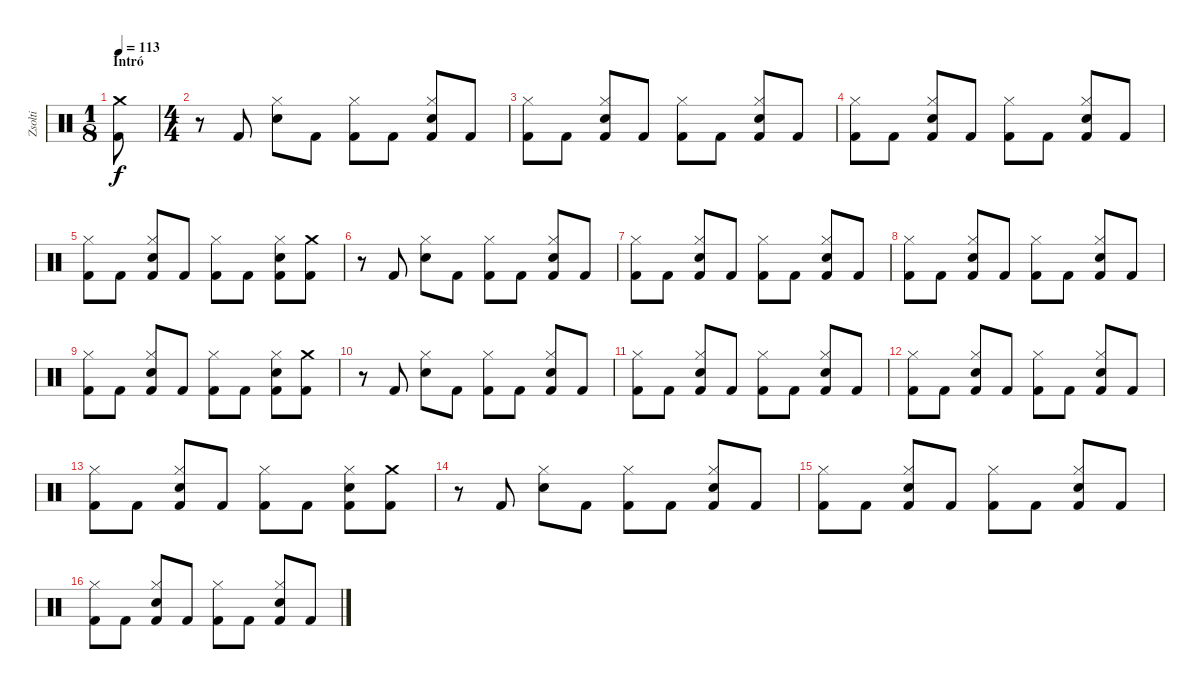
\track ("Zsolti" "Zsolti") {instrument percussion}
\staff {score}
\articulation defaults
\ts (1 8)
\section ("" "Intró")
\tempo 113
\clef neutral
\ks c
("Crash medium (hit)" "Kick (hit) 2").8{dy f} |
\ts (4 4)
r.8 "Kick (hit) 2".8 ("Hi-Hat (closed)" "Snare (hit) 2").8 "Kick (hit) 2".8 ("Hi-Hat (closed)" "Kick (hit) 2").8 "Kick (hit) 2".8 ("Hi-Hat (closed)" "Snare (hit) 2" "Kick (hit) 2").8 "Kick (hit) 2".8 |
("Hi-Hat (closed)" "Kick (hit) 2").8 "Kick (hit) 2".8 ("Hi-Hat (closed)" "Snare (hit) 2" "Kick (hit) 2").8 "Kick (hit) 2".8 ("Hi-Hat (closed)" "Kick (hit) 2").8 "Kick (hit) 2".8 ("Hi-Hat (closed)" "Snare (hit) 2" "Kick (hit) 2").8 "Kick (hit) 2".8 |
("Hi-Hat (closed)" "Kick (hit) 2").8 "Kick (hit) 2".8 ("Hi-Hat (closed)" "Snare (hit) 2" "Kick (hit) 2").8 "Kick (hit) 2".8 ("Hi-Hat (closed)" "Kick (hit) 2").8 "Kick (hit) 2".8 ("Hi-Hat (closed)" "Snare (hit) 2" "Kick (hit) 2").8 "Kick (hit) 2".8 |
("Hi-Hat (closed)" "Kick (hit) 2").8 "Kick (hit) 2".8 ("Hi-Hat (closed)" "Snare (hit) 2" "Kick (hit) 2").8 "Kick (hit) 2".8 ("Hi-Hat (closed)" "Kick (hit) 2").8 "Kick (hit) 2".8 ("Hi-Hat (closed)" "Snare (hit) 2" "Kick (hit) 2").8 ("Crash medium (hit)" "Kick (hit) 2").8 |
r.8 "Kick (hit) 2".8 ("Hi-Hat (closed)" "Snare (hit) 2").8 "Kick (hit) 2".8 ("Hi-Hat (closed)" "Kick (hit) 2").8 "Kick (hit) 2".8 ("Hi-Hat (closed)" "Snare (hit) 2" "Kick (hit) 2").8 "Kick (hit) 2".8 |
("Hi-Hat (closed)" "Kick (hit) 2").8 "Kick (hit) 2".8 ("Hi-Hat (closed)" "Snare (hit) 2" "Kick (hit) 2").8 "Kick (hit) 2".8 ("Hi-Hat (closed)" "Kick (hit) 2").8 "Kick (hit) 2".8 ("Hi-Hat (closed)" "Snare (hit) 2" "Kick (hit) 2").8 "Kick (hit) 2".8 |
("Hi-Hat (closed)" "Kick (hit) 2").8 "Kick (hit) 2".8 ("Hi-Hat (closed)" "Snare (hit) 2" "Kick (hit) 2").8 "Kick (hit) 2".8 ("Hi-Hat (closed)" "Kick (hit) 2").8 "Kick (hit) 2".8 ("Hi-Hat (closed)" "Snare (hit) 2" "Kick (hit) 2").8 "Kick (hit) 2".8 |
("Hi-Hat (closed)" "Kick (hit) 2").8 "Kick (hit) 2".8 ("Hi-Hat (closed)" "Snare (hit) 2" "Kick (hit) 2").8 "Kick (hit) 2".8 ("Hi-Hat (closed)" "Kick (hit) 2").8 "Kick (hit) 2".8 ("Hi-Hat (closed)" "Snare (hit) 2" "Kick (hit) 2").8 ("Crash medium (hit)" "Kick (hit) 2").8 |
r.8 "Kick (hit) 2".8 ("Hi-Hat (closed)" "Snare (hit) 2").8 "Kick (hit) 2".8 ("Hi-Hat (closed)" "Kick (hit) 2").8 "Kick (hit) 2".8 ("Hi-Hat (closed)" "Snare (hit) 2" "Kick (hit) 2").8 "Kick (hit) 2".8 |
("Hi-Hat (closed)" "Kick (hit) 2").8 "Kick (hit) 2".8 ("Hi-Hat (closed)" "Snare (hit) 2" "Kick (hit) 2").8 "Kick (hit) 2".8 ("Hi-Hat (closed)" "Kick (hit) 2").8 "Kick (hit) 2".8 ("Hi-Hat (closed)" "Snare (hit) 2" "Kick (hit) 2").8 "Kick (hit) 2".8 |
("Hi-Hat (closed)" "Kick (hit) 2").8 "Kick (hit) 2".8 ("Hi-Hat (closed)" "Snare (hit) 2" "Kick (hit) 2").8 "Kick (hit) 2".8 ("Hi-Hat (closed)" "Kick (hit) 2").8 "Kick (hit) 2".8 ("Hi-Hat (closed)" "Snare (hit) 2" "Kick (hit) 2").8 "Kick (hit) 2".8 |
("Hi-Hat (closed)" "Kick (hit) 2").8 "Kick (hit) 2".8 ("Hi-Hat (closed)" "Snare (hit) 2" "Kick (hit) 2").8 "Kick (hit) 2".8 ("Hi-Hat (closed)" "Kick (hit) 2").8 "Kick (hit) 2".8 ("Hi-Hat (closed)" "Snare (hit) 2" "Kick (hit) 2").8 ("Crash medium (hit)" "Kick (hit) 2").8 |
r.8 "Kick (hit) 2".8 ("Hi-Hat (closed)" "Snare (hit) 2").8 "Kick (hit) 2".8 ("Hi-Hat (closed)" "Kick (hit) 2").8 "Kick (hit) 2".8 ("Hi-Hat (closed)" "Snare (hit) 2" "Kick (hit) 2").8 "Kick (hit) 2".8 |
("Hi-Hat (closed)" "Kick (hit) 2").8 "Kick (hit) 2".8 ("Hi-Hat (closed)" "Snare (hit) 2" "Kick (hit) 2").8 "Kick (hit) 2".8 ("Hi-Hat (closed)" "Kick (hit) 2").8 "Kick (hit) 2".8 ("Hi-Hat (closed)" "Snare (hit) 2" "Kick (hit) 2").8 "Kick (hit) 2".8 |
("Hi-Hat (closed)" "Kick (hit) 2").8 "Kick (hit) 2".8 ("Hi-Hat (closed)" "Snare (hit) 2" "Kick (hit) 2").8 "Kick (hit) 2".8 ("Hi-Hat (closed)" "Kick (hit) 2").8 "Kick (hit) 2".8 ("Hi-Hat (closed)" "Snare (hit) 2" "Kick (hit) 2").8 "Kick (hit) 2".8
